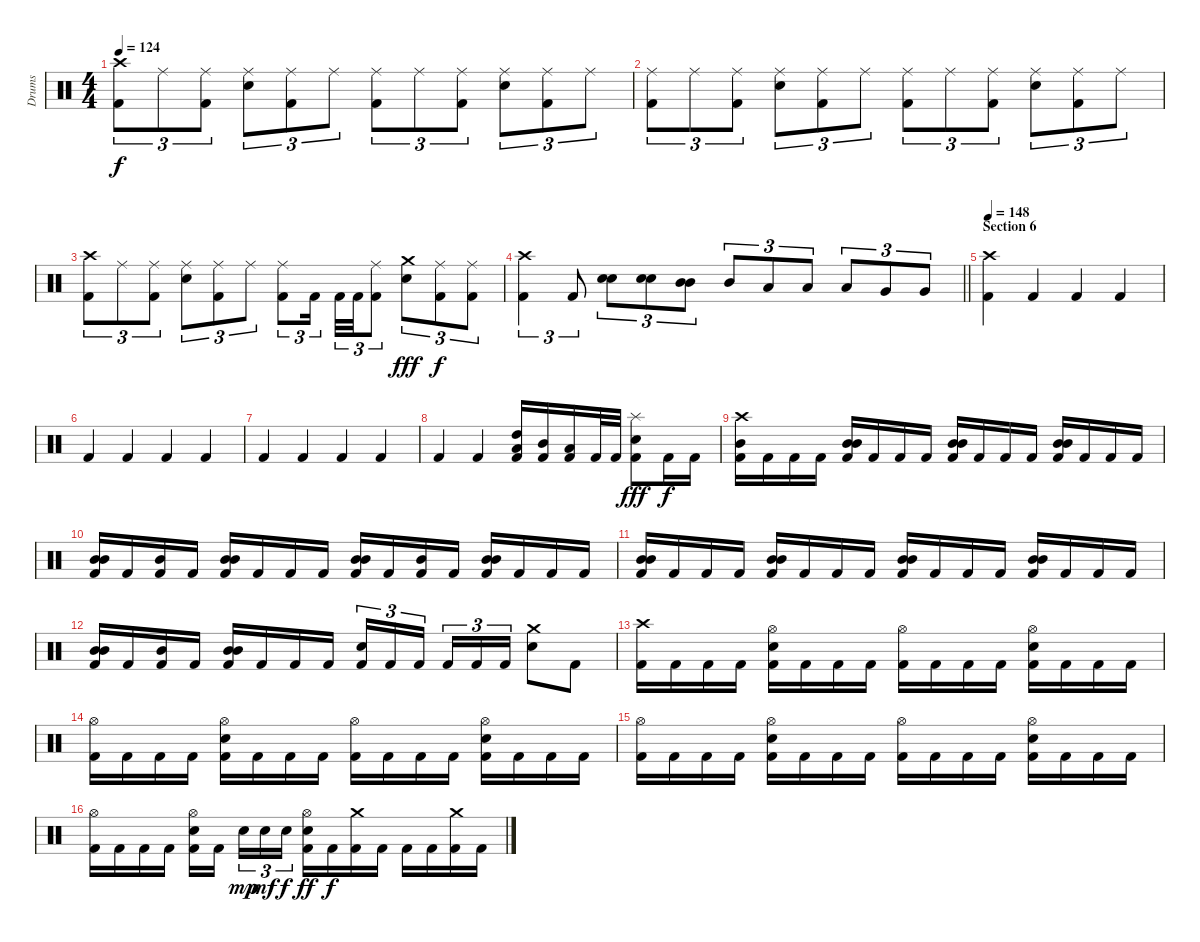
\track ("Drums" "Drums") {instrument percussion}
\staff {score}
\articulation defaults
\ts (4 4)
\tempo 124
\clef neutral
\ks c
("Crash high (hit)" "Kick (hit) 2").8{tu (3 2) dy f} "Ride (middle)".8{tu (3 2)} ("Ride (middle)" "Kick (hit) 2").8{tu (3 2)} ("Ride (middle)" "Electric Snare (hit)").8{tu (3 2)} ("Ride (middle)" "Kick (hit) 2").8{tu (3 2)} "Ride (middle)".8{tu (3 2)} ("Ride (middle)" "Kick (hit) 2").8{tu (3 2)} "Ride (middle)".8{tu (3 2)} ("Ride (middle)" "Kick (hit) 2").8{tu (3 2)} ("Ride (middle)" "Electric Snare (hit)").8{tu (3 2)} ("Ride (middle)" "Kick (hit) 2").8{tu (3 2)} "Ride (middle)".8{tu (3 2)} |
("Ride (middle)" "Kick (hit) 2").8{tu (3 2)} "Ride (middle)".8{tu (3 2)} ("Ride (middle)" "Kick (hit) 2").8{tu (3 2)} ("Ride (middle)" "Electric Snare (hit)").8{tu (3 2)} ("Ride (middle)" "Kick (hit) 2").8{tu (3 2)} "Ride (middle)".8{tu (3 2)} ("Ride (middle)" "Kick (hit) 2").8{tu (3 2)} "Ride (middle)".8{tu (3 2)} ("Ride (middle)" "Kick (hit) 2").8{tu (3 2)} ("Ride (middle)" "Electric Snare (hit)").8{tu (3 2)} ("Ride (middle)" "Kick (hit) 2").8{tu (3 2)} "Ride (middle)".8{tu (3 2)} |
("Crash high (hit)" "Kick (hit) 2").8{tu (3 2)} "Ride (middle)".8{tu (3 2)} ("Ride (middle)" "Kick (hit) 2").8{tu (3 2)} ("Ride (middle)" "Electric Snare (hit)").8{tu (3 2)} ("Ride (middle)" "Kick (hit) 2").8{tu (3 2)} "Ride (middle)".8{tu (3 2)} ("Ride (middle)" "Kick (hit) 2").8{tu (3 2)} "Kick (hit) 2".16{tu (3 2) beam splitsecondary} "Kick (hit) 2".32{tu (3 2)} "Kick (hit) 2".32{tu (3 2)} ("Ride (middle)" "Kick (hit) 2").8{tu (3 2)} ("Crash medium (hit)" "Electric Snare (hit)").8{tu (3 2) dy fff} ("Ride (middle)" "Kick (hit) 2").8{tu (3 2) dy f} ("Ride (middle)" "Kick (hit) 2").8{tu (3 2)} |
\barLineRight lightlight
("Crash high (hit)" "Kick (hit) 2").4{tu (3 2)} "Kick (hit) 2".8{tu (3 2)} ("Electric Snare (hit)" "Electric Snare (hit)").8{tu (3 2) bu 60} ("Electric Snare (hit)" "Electric Snare (hit)").8{tu (3 2) bu 60} ("Mid Tom (hit)" "Mid Tom (hit)").8{tu (3 2) bu 60} "Mid Tom (hit)".8{tu (3 2)} "Low Tom (hit)".8{tu (3 2)} "Low Tom (hit)".8{tu (3 2)} "Low Tom (hit)".8{tu (3 2)} "Very Low Tom (hit)".8{tu (3 2)} "Very Low Tom (hit)".8{tu (3 2)} |
\section ("" "Section 6")
\tempo 148
("Crash high (hit)" "Kick (hit) 2").4 "Kick (hit) 2".4 "Kick (hit) 2".4 "Kick (hit) 2".4 |
"Kick (hit) 2".4 "Kick (hit) 2".4 "Kick (hit) 2".4 "Kick (hit) 2".4 |
"Kick (hit) 2".4 "Kick (hit) 2".4 "Kick (hit) 2".4 "Kick (hit) 2".4 |
"Kick (hit) 2".4 "Kick (hit) 2".4 ("High Tom (hit)" "Low Tom (hit)" "Kick (hit) 2").16 ("Mid Tom (hit)" "Kick (hit) 2").16 ("Low Tom (hit)" "Kick (hit) 2").16 "Kick (hit) 2".32 "Kick (hit) 2".32 ("Splash (hit)" "Electric Snare (hit)" "Kick (hit) 2").8{dy fff} "Kick (hit) 2".16{dy f} "Kick (hit) 2".16 |
("Crash high (hit)" "Mid Tom (hit)" "Kick (hit) 2").16 "Kick (hit) 2".16 "Kick (hit) 2".16 "Kick (hit) 2".16 ("Mid Tom (hit)" "Mid Tom (hit)" "Kick (hit) 2").16 "Kick (hit) 2".16 "Kick (hit) 2".16 "Kick (hit) 2".16 ("Mid Tom (hit)" "Mid Tom (hit)" "Kick (hit) 2").16 "Kick (hit) 2".16 "Kick (hit) 2".16 "Kick (hit) 2".16 ("Mid Tom (hit)" "Mid Tom (hit)" "Kick (hit) 2").16 "Kick (hit) 2".16 "Kick (hit) 2".16 "Kick (hit) 2".16 |
("Mid Tom (hit)" "Mid Tom (hit)" "Kick (hit) 2").16 "Kick (hit) 2".16 ("Mid Tom (hit)" "Kick (hit) 2").16 "Kick (hit) 2".16 ("Mid Tom (hit)" "Mid Tom (hit)" "Kick (hit) 2").16 "Kick (hit) 2".16 "Kick (hit) 2".16 "Kick (hit) 2".16 ("Mid Tom (hit)" "Mid Tom (hit)" "Kick (hit) 2").16 "Kick (hit) 2".16 ("Mid Tom (hit)" "Kick (hit) 2").16 "Kick (hit) 2".16 ("Mid Tom (hit)" "Mid Tom (hit)" "Kick (hit) 2").16 "Kick (hit) 2".16 "Kick (hit) 2".16 "Kick (hit) 2".16 |
("Mid Tom (hit)" "Mid Tom (hit)" "Kick (hit) 2").16 "Kick (hit) 2".16 "Kick (hit) 2".16 "Kick (hit) 2".16 ("Mid Tom (hit)" "Mid Tom (hit)" "Kick (hit) 2").16 "Kick (hit) 2".16 "Kick (hit) 2".16 "Kick (hit) 2".16 ("Mid Tom (hit)" "Mid Tom (hit)" "Kick (hit) 2").16 "Kick (hit) 2".16 "Kick (hit) 2".16 "Kick (hit) 2".16 ("Mid Tom (hit)" "Mid Tom (hit)" "Kick (hit) 2").16 "Kick (hit) 2".16 "Kick (hit) 2".16 "Kick (hit) 2".16 |
("Mid Tom (hit)" "Mid Tom (hit)" "Kick (hit) 2").16 "Kick (hit) 2".16 ("Mid Tom (hit)" "Kick (hit) 2").16 "Kick (hit) 2".16 ("Mid Tom (hit)" "Mid Tom (hit)" "Kick (hit) 2").16 "Kick (hit) 2".16 "Kick (hit) 2".16 "Kick (hit) 2".16 ("Electric Snare (hit)" "Kick (hit) 2").16{tu (3 2)} "Kick (hit) 2".16{tu (3 2)} "Kick (hit) 2".16{tu (3 2) beam splitsecondary} "Kick (hit) 2".16{tu (3 2)} "Kick (hit) 2".16{tu (3 2)} "Kick (hit) 2".16{tu (3 2)} ("Crash medium (hit)" "Electric Snare (hit)").8 "Kick (hit) 2".8 |
("Crash high (hit)" "Kick (hit) 2").16 "Kick (hit) 2".16 "Kick (hit) 2".16 "Kick (hit) 2".16 ("Hi-Hat (open)" "Electric Snare (hit)" "Kick (hit) 2").16 "Kick (hit) 2".16 "Kick (hit) 2".16 "Kick (hit) 2".16 ("Hi-Hat (open)" "Kick (hit) 2").16 "Kick (hit) 2".16 "Kick (hit) 2".16 "Kick (hit) 2".16 ("Hi-Hat (open)" "Electric Snare (hit)" "Kick (hit) 2").16 "Kick (hit) 2".16 "Kick (hit) 2".16 "Kick (hit) 2".16 |
("Hi-Hat (open)" "Kick (hit) 2").16 "Kick (hit) 2".16 "Kick (hit) 2".16 "Kick (hit) 2".16 ("Hi-Hat (open)" "Electric Snare (hit)" "Kick (hit) 2").16 "Kick (hit) 2".16 "Kick (hit) 2".16 "Kick (hit) 2".16 ("Hi-Hat (open)" "Kick (hit) 2").16 "Kick (hit) 2".16 "Kick (hit) 2".16 "Kick (hit) 2".16 ("Hi-Hat (open)" "Electric Snare (hit)" "Kick (hit) 2").16 "Kick (hit) 2".16 "Kick (hit) 2".16 "Kick (hit) 2".16 |
("Hi-Hat (open)" "Kick (hit) 2").16 "Kick (hit) 2".16 "Kick (hit) 2".16 "Kick (hit) 2".16 ("Hi-Hat (open)" "Electric Snare (hit)" "Kick (hit) 2").16 "Kick (hit) 2".16 "Kick (hit) 2".16 "Kick (hit) 2".16 ("Hi-Hat (open)" "Kick (hit) 2").16 "Kick (hit) 2".16 "Kick (hit) 2".16 "Kick (hit) 2".16 ("Hi-Hat (open)" "Electric Snare (hit)" "Kick (hit) 2").16 "Kick (hit) 2".16 "Kick (hit) 2".16 "Kick (hit) 2".16 |
("Hi-Hat (open)" "Kick (hit) 2").16 "Kick (hit) 2".16 "Kick (hit) 2".16 "Kick (hit) 2".16 ("Hi-Hat (open)" "Electric Snare (hit)" "Kick (hit) 2").16 "Kick (hit) 2".16{beam splitsecondary} "Electric Snare (hit)".16{tu (3 2) dy mp} "Electric Snare (hit)".16{tu (3 2) dy mf} "Electric Snare (hit)".16{tu (3 2) dy f} ("Hi-Hat (open)" "Electric Snare (hit)" "Kick (hit) 2").16{dy ff} "Kick (hit) 2".16{dy f} ("Crash medium (hit)" "Kick (hit) 2").16 "Kick (hit) 2".16 "Kick (hit) 2".16 "Kick (hit) 2".16 ("Crash medium (hit)" "Kick (hit) 2").16 "Kick (hit) 2".16
